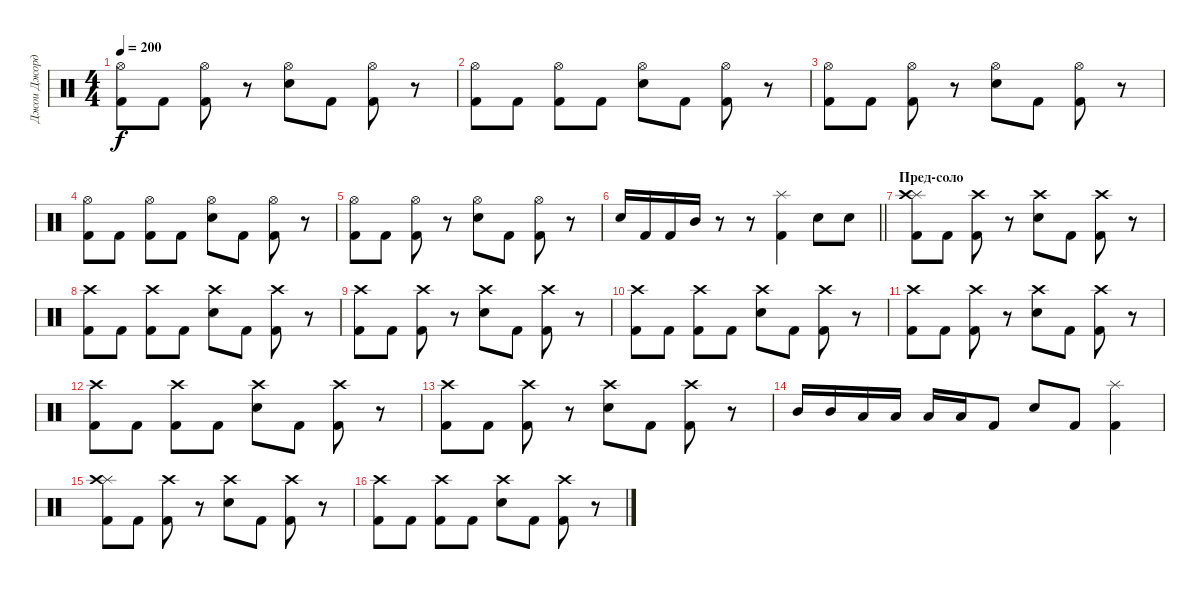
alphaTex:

\track ("Джои Джордисон" "Джои Джорд") {instrument percussion}
\staff {score}
\articulation defaults
\ts (4 4)
\tempo 200
\clef neutral
\ks c
("Hi-Hat (open)" "Kick (hit) 2").8{dy f} "Kick (hit) 2".8 ("Hi-Hat (open)" "Kick (hit) 2").8 r.8 ("Hi-Hat (open)" "Electric Snare (hit)").8 "Kick (hit) 2".8 ("Hi-Hat (open)" "Kick (hit) 2").8 r.8 |
("Hi-Hat (open)" "Kick (hit) 2").8 "Kick (hit) 2".8 ("Hi-Hat (open)" "Kick (hit) 2").8 "Kick (hit) 2".8 ("Hi-Hat (open)" "Electric Snare (hit)").8 "Kick (hit) 2".8 ("Hi-Hat (open)" "Kick (hit) 2").8 r.8 |
("Hi-Hat (open)" "Kick (hit) 2").8 "Kick (hit) 2".8 ("Hi-Hat (open)" "Kick (hit) 2").8 r.8 ("Hi-Hat (open)" "Electric Snare (hit)").8 "Kick (hit) 2".8 ("Hi-Hat (open)" "Kick (hit) 2").8 r.8 |
("Hi-Hat (open)" "Kick (hit) 2").8 "Kick (hit) 2".8 ("Hi-Hat (open)" "Kick (hit) 2").8 "Kick (hit) 2".8 ("Hi-Hat (open)" "Electric Snare (hit)").8 "Kick (hit) 2".8 ("Hi-Hat (open)" "Kick (hit) 2").8 r.8 |
("Hi-Hat (open)" "Kick (hit) 2").8 "Kick (hit) 2".8 ("Hi-Hat (open)" "Kick (hit) 2").8 r.8 ("Hi-Hat (open)" "Electric Snare (hit)").8 "Kick (hit) 2".8 ("Hi-Hat (open)" "Kick (hit) 2").8 r.8 |
\barLineRight lightlight "Electric Snare (hit)".16 "Kick (hit) 2".16 "Kick (hit) 2".16 "Mid Tom (hit)".16
r.8 r.8 ("Splash (hit)" "Kick (hit) 2").4 "Electric Snare (hit)".8 "Electric Snare (hit)".8 |
\section ("" "Пред-соло")
("Splash (hit)" "Crash high (hit)" "Kick (hit) 2").8 "Kick (hit) 2".8 ("Crash high (hit)" "Kick (hit) 2").8 r.8 ("Crash high (hit)" "Electric Snare (hit)").8 "Kick (hit) 2".8 ("Crash high (hit)" "Kick (hit) 2").8 r.8 |
("Crash high (hit)" "Kick (hit) 2").8 "Kick (hit) 2".8 ("Crash high (hit)" "Kick (hit) 2").8 "Kick (hit) 2".8 ("Crash high (hit)" "Electric Snare (hit)").8 "Kick (hit) 2".8 ("Crash high (hit)" "Kick (hit) 2").8 r.8 |
("Crash high (hit)" "Kick (hit) 2").8 "Kick (hit) 2".8 ("Crash high (hit)" "Kick (hit) 2").8 r.8 ("Crash high (hit)" "Electric Snare (hit)").8 "Kick (hit) 2".8 ("Crash high (hit)" "Kick (hit) 2").8 r.8 |
("Crash high (hit)" "Kick (hit) 2").8 "Kick (hit) 2".8 ("Crash high (hit)" "Kick (hit) 2").8 "Kick (hit) 2".8 ("Crash high (hit)" "Electric Snare (hit)").8 "Kick (hit) 2".8 ("Crash high (hit)" "Kick (hit) 2").8 r.8 |
("Crash high (hit)" "Kick (hit) 2").8 "Kick (hit) 2".8 ("Crash high (hit)" "Kick (hit) 2").8 r.8 ("Crash high (hit)" "Electric Snare (hit)").8 "Kick (hit) 2".8 ("Crash high (hit)" "Kick (hit) 2").8 r.8 |
("Crash high (hit)" "Kick (hit) 2").8 "Kick (hit) 2".8 ("Crash high (hit)" "Kick (hit) 2").8 "Kick (hit) 2".8 ("Crash high (hit)" "Electric Snare (hit)").8 "Kick (hit) 2".8 ("Crash high (hit)" "Kick (hit) 2").8 r.8 |
("Crash high (hit)" "Kick (hit) 2").8 "Kick (hit) 2".8 ("Crash high (hit)" "Kick (hit) 2").8 r.8 ("Crash high (hit)" "Electric Snare (hit)").8 "Kick (hit) 2".8 ("Crash high (hit)" "Kick (hit) 2").8 r.8 |
"Mid Tom (hit)".16 "Mid Tom (hit)".16 "Low Tom (hit)".16 "Low Tom (hit)".16 "Low Floor Tom (hit)".16 "Low Floor Tom (hit)".16 "Kick (hit) 2".8 "Electric Snare (hit)".8 "Kick (hit) 2".8 ("Splash (hit)" "Kick (hit) 2").4 |
("Splash (hit)" "Crash high (hit)" "Kick (hit) 2").8 "Kick (hit) 2".8 ("Crash high (hit)" "Kick (hit) 2").8 r.8 ("Crash high (hit)" "Electric Snare (hit)").8 "Kick (hit) 2".8 ("Crash high (hit)" "Kick (hit) 2").8 r.8 |
("Crash high (hit)" "Kick (hit) 2").8 "Kick (hit) 2".8 ("Crash high (hit)" "Kick (hit) 2").8 "Kick (hit) 2".8 ("Crash high (hit)" "Electric Snare (hit)").8 "Kick (hit) 2".8 ("Crash high (hit)" "Kick (hit) 2").8 r.8
